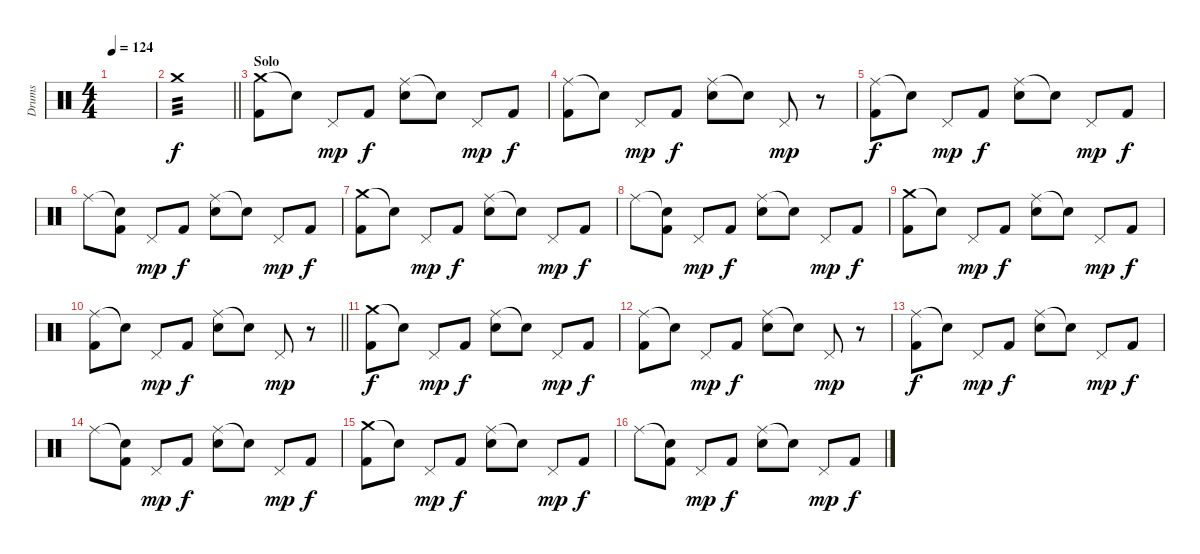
\track ("Drums" "Drums") {instrument percussion}
\staff {score}
\articulation defaults
\ts (4 4)
\tempo 124
\clef neutral
\ks c
|
\barLineRight lightlight "Crash medium (hit)".1{tp 3 volume 11}
|
\section ("" "Solo")
("Crash medium (hit)" "Kick (hit) 2").8{dy f} "Snare (hit)"{t}.8 "Pedal Hi-Hat (hit)".8{dy mp} "Kick (hit) 2".8{dy f} ("Ride (middle)" "Electric Snare (hit)").8 "Snare (hit)"{t}.8 "Pedal Hi-Hat (hit)".8{dy mp} "Kick (hit) 2".8{dy f} |
("Ride (middle)" "Kick (hit) 2").8 "Snare (hit)"{t}.8 "Pedal Hi-Hat (hit)".8{dy mp} "Kick (hit) 2".8{dy f} ("Ride (middle)" "Electric Snare (hit)").8 "Snare (hit)"{t}.8 "Pedal Hi-Hat (hit)".8{dy mp} r.8 |
("Ride (middle)" "Kick (hit) 2").8{dy f} "Snare (hit)"{t}.8 "Pedal Hi-Hat (hit)".8{dy mp} "Kick (hit) 2".8{dy f} ("Ride (middle)" "Electric Snare (hit)").8 "Snare (hit)"{t}.8 "Pedal Hi-Hat (hit)".8{dy mp} "Kick (hit) 2".8{dy f} |
"Ride (middle)".8 ("Snare (hit)"{t} "Kick (hit) 2").8 "Pedal Hi-Hat (hit)".8{dy mp} "Kick (hit) 2".8{dy f} ("Ride (middle)" "Electric Snare (hit)").8 "Snare (hit)"{t}.8 "Pedal Hi-Hat (hit)".8{dy mp} "Kick (hit) 2".8{dy f} |
("Crash medium (hit)" "Kick (hit) 2").8 "Snare (hit)"{t}.8 "Pedal Hi-Hat (hit)".8{dy mp} "Kick (hit) 2".8{dy f} ("Ride (middle)" "Electric Snare (hit)").8 "Snare (hit)"{t}.8 "Pedal Hi-Hat (hit)".8{dy mp} "Kick (hit) 2".8{dy f} |
"Ride (middle)".8 ("Snare (hit)"{t} "Kick (hit) 2").8 "Pedal Hi-Hat (hit)".8{dy mp} "Kick (hit) 2".8{dy f} ("Ride (middle)" "Electric Snare (hit)").8 "Snare (hit)"{t}.8 "Pedal Hi-Hat (hit)".8{dy mp} "Kick (hit) 2".8{dy f} |
("Crash medium (hit)" "Kick (hit) 2").8 "Snare (hit)"{t}.8 "Pedal Hi-Hat (hit)".8{dy mp} "Kick (hit) 2".8{dy f} ("Ride (middle)" "Electric Snare (hit)").8 "Snare (hit)"{t}.8 "Pedal Hi-Hat (hit)".8{dy mp} "Kick (hit) 2".8{dy f} |
\barLineRight lightlight
("Ride (middle)" "Kick (hit) 2").8 "Snare (hit)"{t}.8 "Pedal Hi-Hat (hit)".8{dy mp} "Kick (hit) 2".8{dy f} ("Ride (middle)" "Electric Snare (hit)").8 "Snare (hit)"{t}.8 "Pedal Hi-Hat (hit)".8{dy mp} r.8 |
("Crash medium (hit)" "Kick (hit) 2").8{dy f} "Snare (hit)"{t}.8 "Pedal Hi-Hat (hit)".8{dy mp} "Kick (hit) 2".8{dy f} ("Ride (middle)" "Electric Snare (hit)").8 "Snare (hit)"{t}.8 "Pedal Hi-Hat (hit)".8{dy mp} "Kick (hit) 2".8{dy f} |
("Ride (middle)" "Kick (hit) 2").8 "Snare (hit)"{t}.8 "Pedal Hi-Hat (hit)".8{dy mp} "Kick (hit) 2".8{dy f} ("Ride (middle)" "Electric Snare (hit)").8 "Snare (hit)"{t}.8 "Pedal Hi-Hat (hit)".8{dy mp} r.8 |
("Ride (middle)" "Kick (hit) 2").8{dy f} "Snare (hit)"{t}.8 "Pedal Hi-Hat (hit)".8{dy mp} "Kick (hit) 2".8{dy f} ("Ride (middle)" "Electric Snare (hit)").8 "Snare (hit)"{t}.8 "Pedal Hi-Hat (hit)".8{dy mp} "Kick (hit) 2".8{dy f} |
"Ride (middle)".8 ("Snare (hit)"{t} "Kick (hit) 2").8 "Pedal Hi-Hat (hit)".8{dy mp} "Kick (hit) 2".8{dy f} ("Ride (middle)" "Electric Snare (hit)").8 "Snare (hit)"{t}.8 "Pedal Hi-Hat (hit)".8{dy mp} "Kick (hit) 2".8{dy f} |
("Crash medium (hit)" "Kick (hit) 2").8 "Snare (hit)"{t}.8 "Pedal Hi-Hat (hit)".8{dy mp} "Kick (hit) 2".8{dy f} ("Ride (middle)" "Electric Snare (hit)").8 "Snare (hit)"{t}.8 "Pedal Hi-Hat (hit)".8{dy mp} "Kick (hit) 2".8{dy f} |
"Ride (middle)".8 ("Snare (hit)"{t} "Kick (hit) 2").8 "Pedal Hi-Hat (hit)".8{dy mp} "Kick (hit) 2".8{dy f} ("Ride (middle)" "Electric Snare (hit)").8 "Snare (hit)"{t}.8 "Pedal Hi-Hat (hit)".8{dy mp} "Kick (hit) 2".8{dy f}
